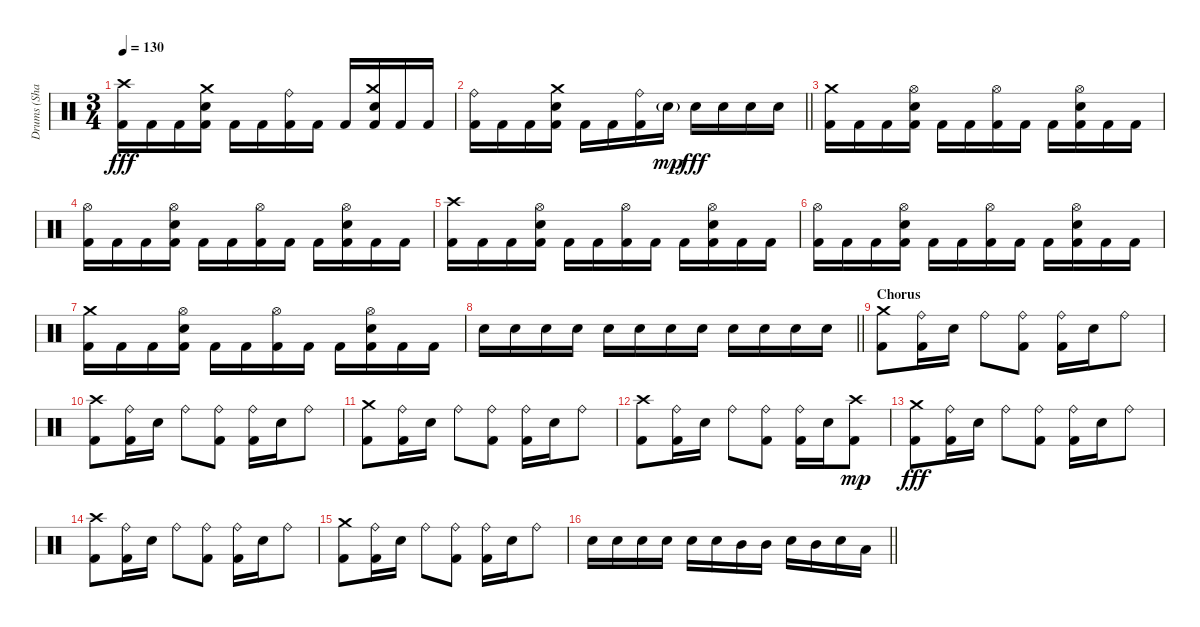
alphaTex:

\track ("Drums (Shawn)" "Drums (Sha") {instrument percussion}
\staff {score}
\articulation defaults
\ts (3 4)
\tempo 130
\clef neutral
\ks c
("Crash high (hit)" "Kick (hit) 2").16{dy fff} "Kick (hit) 2".16 "Kick (hit) 2".16 ("Crash medium (hit)" "Snare (hit) 2" "Kick (hit) 2").16 "Kick (hit) 2".16 "Kick (hit) 2".16 ("Ride (bell)" "Kick (hit) 2").16 "Kick (hit) 2".16 "Kick (hit) 2".16 ("Crash medium (hit)" "Snare (hit) 2" "Kick (hit) 2").16 "Kick (hit) 2".16 "Kick (hit) 2".16 |
\barLineRight lightlight
("Ride (bell)" "Kick (hit) 2").16 "Kick (hit) 2".16 "Kick (hit) 2".16 ("Crash medium (hit)" "Snare (hit) 2" "Kick (hit) 2").16 "Kick (hit) 2".16 "Kick (hit) 2".16 ("Ride (bell)" "Kick (hit) 2").16 "Snare (hit) 2"{g}.16{dy mp} "Snare (hit) 2".16{dy fff} "Snare (hit) 2".16 "Snare (hit) 2".16 "Snare (hit) 2".16 |
("Crash medium (hit)" "Kick (hit) 2").16 "Kick (hit) 2".16 "Kick (hit) 2".16 ("Hi-Hat (open)" "Snare (hit) 2" "Kick (hit) 2").16 "Kick (hit) 2".16 "Kick (hit) 2".16 ("Hi-Hat (open)" "Kick (hit) 2").16 "Kick (hit) 2".16 "Kick (hit) 2".16 ("Hi-Hat (open)" "Snare (hit) 2" "Kick (hit) 2").16 "Kick (hit) 2".16 "Kick (hit) 2".16 |
("Hi-Hat (open)" "Kick (hit) 2").16 "Kick (hit) 2".16 "Kick (hit) 2".16 ("Hi-Hat (open)" "Snare (hit) 2" "Kick (hit) 2").16 "Kick (hit) 2".16 "Kick (hit) 2".16 ("Hi-Hat (open)" "Kick (hit) 2").16 "Kick (hit) 2".16 "Kick (hit) 2".16 ("Hi-Hat (open)" "Snare (hit) 2" "Kick (hit) 2").16 "Kick (hit) 2".16 "Kick (hit) 2".16 |
("Crash high (hit)" "Kick (hit) 2").16 "Kick (hit) 2".16 "Kick (hit) 2".16 ("Hi-Hat (open)" "Snare (hit) 2" "Kick (hit) 2").16 "Kick (hit) 2".16 "Kick (hit) 2".16 ("Hi-Hat (open)" "Kick (hit) 2").16 "Kick (hit) 2".16 "Kick (hit) 2".16 ("Hi-Hat (open)" "Snare (hit) 2" "Kick (hit) 2").16 "Kick (hit) 2".16 "Kick (hit) 2".16 |
("Hi-Hat (open)" "Kick (hit) 2").16 "Kick (hit) 2".16 "Kick (hit) 2".16 ("Hi-Hat (open)" "Snare (hit) 2" "Kick (hit) 2").16 "Kick (hit) 2".16 "Kick (hit) 2".16 ("Hi-Hat (open)" "Kick (hit) 2").16 "Kick (hit) 2".16 "Kick (hit) 2".16 ("Hi-Hat (open)" "Snare (hit) 2" "Kick (hit) 2").16 "Kick (hit) 2".16 "Kick (hit) 2".16 |
("Crash medium (hit)" "Kick (hit) 2").16 "Kick (hit) 2".16 "Kick (hit) 2".16 ("Hi-Hat (open)" "Snare (hit) 2" "Kick (hit) 2").16 "Kick (hit) 2".16 "Kick (hit) 2".16 ("Hi-Hat (open)" "Kick (hit) 2").16 "Kick (hit) 2".16 "Kick (hit) 2".16 ("Hi-Hat (open)" "Snare (hit) 2" "Kick (hit) 2").16 "Kick (hit) 2".16 "Kick (hit) 2".16 |
\barLineRight lightlight "Snare (hit) 2".16 "Snare (hit) 2".16 "Snare (hit) 2".16 "Snare (hit) 2".16 "Snare (hit) 2".16 "Snare (hit) 2".16 "Snare (hit) 2".16 "Snare (hit) 2".16 "Snare (hit) 2".16 "Snare (hit) 2".16 "Snare (hit) 2".16 "Snare (hit) 2".16
|
\section ("" "Chorus")
("Crash medium (hit)" "Kick (hit) 2").8 ("Ride (bell)" "Kick (hit) 2").16 "Snare (hit) 2".16 "Ride (bell)".8 ("Ride (bell)" "Kick (hit) 2").8 ("Ride (bell)" "Kick (hit) 2").16 "Snare (hit) 2".16 "Ride (bell)".8 |
("Crash high (hit)" "Kick (hit) 2").8 ("Ride (bell)" "Kick (hit) 2").16 "Snare (hit) 2".16 "Ride (bell)".8 ("Ride (bell)" "Kick (hit) 2").8 ("Ride (bell)" "Kick (hit) 2").16 "Snare (hit) 2".16 "Ride (bell)".8 |
("Crash medium (hit)" "Kick (hit) 2").8 ("Ride (bell)" "Kick (hit) 2").16 "Snare (hit) 2".16 "Ride (bell)".8 ("Ride (bell)" "Kick (hit) 2").8 ("Ride (bell)" "Kick (hit) 2").16 "Snare (hit) 2".16 "Ride (bell)".8 |
("Crash high (hit)" "Kick (hit) 2").8 ("Ride (bell)" "Kick (hit) 2").16 "Snare (hit) 2".16 "Ride (bell)".8 ("Ride (bell)" "Kick (hit) 2").8 ("Ride (bell)" "Kick (hit) 2").16 "Snare (hit) 2".16 ("Crash high (hit)" "Kick (hit) 2").8{dy mp} |
("Crash medium (hit)" "Kick (hit) 2").8{dy fff} ("Ride (bell)" "Kick (hit) 2").16 "Snare (hit) 2".16 "Ride (bell)".8 ("Ride (bell)" "Kick (hit) 2").8 ("Ride (bell)" "Kick (hit) 2").16 "Snare (hit) 2".16 "Ride (bell)".8 |
("Crash high (hit)" "Kick (hit) 2").8 ("Ride (bell)" "Kick (hit) 2").16 "Snare (hit) 2".16 "Ride (bell)".8 ("Ride (bell)" "Kick (hit) 2").8 ("Ride (bell)" "Kick (hit) 2").16 "Snare (hit) 2".16 "Ride (bell)".8 |
("Crash medium (hit)" "Kick (hit) 2").8 ("Ride (bell)" "Kick (hit) 2").16 "Snare (hit) 2".16 "Ride (bell)".8 ("Ride (bell)" "Kick (hit) 2").8 ("Ride (bell)" "Kick (hit) 2").16 "Snare (hit) 2".16 "Ride (bell)".8 |
\barLineRight lightlight "Snare (hit) 2".16 "Snare (hit) 2".16 "Snare (hit) 2".16 "Snare (hit) 2".16 "Snare (hit) 2".16 "Snare (hit) 2".16 "Mid Tom (hit)".16 "Mid Tom (hit)".16 "Snare (hit) 2".16 "Mid Tom (hit)".16 "Snare (hit) 2".16 "Low Tom (hit)".16
